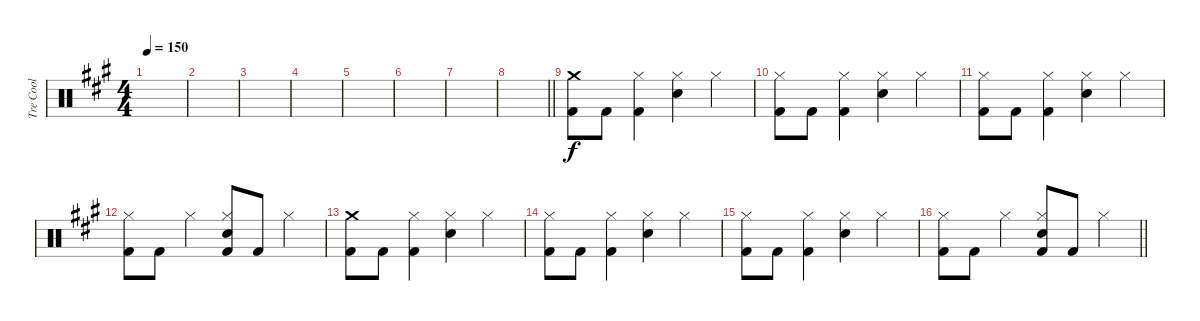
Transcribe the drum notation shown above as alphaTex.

\track ("Tre Cool" "Tre Cool") {instrument percussion}
\staff {score}
\articulation defaults
\ts (4 4)
\tempo 150
\clef neutral
\ks a
|
|
|
|
|
|
|
\barLineRight lightlight
|
("Crash medium (hit)" "Kick (hit) 2").8 "Kick (hit) 2".8 ("Hi-Hat (closed)" "Kick (hit) 2").4 ("Hi-Hat (closed)" "Snare (hit) 2").4 "Hi-Hat (closed)".4 |
("Hi-Hat (closed)" "Kick (hit) 2").8 "Kick (hit) 2".8 ("Hi-Hat (closed)" "Kick (hit) 2").4 ("Hi-Hat (closed)" "Snare (hit) 2").4 "Hi-Hat (closed)".4 |
("Hi-Hat (closed)" "Kick (hit) 2").8 "Kick (hit) 2".8 ("Hi-Hat (closed)" "Kick (hit) 2").4 ("Hi-Hat (closed)" "Snare (hit) 2").4 "Hi-Hat (closed)".4 |
("Hi-Hat (closed)" "Kick (hit) 2").8 "Kick (hit) 2".8 "Hi-Hat (closed)".4 ("Hi-Hat (closed)" "Snare (hit) 2" "Kick (hit) 2").8 "Kick (hit) 2".8 "Hi-Hat (closed)".4 |
("Crash medium (hit)" "Kick (hit) 2").8 "Kick (hit) 2".8 ("Hi-Hat (closed)" "Kick (hit) 2").4 ("Hi-Hat (closed)" "Snare (hit) 2").4 "Hi-Hat (closed)".4 |
("Hi-Hat (closed)" "Kick (hit) 2").8 "Kick (hit) 2".8 ("Hi-Hat (closed)" "Kick (hit) 2").4 ("Hi-Hat (closed)" "Snare (hit) 2").4 "Hi-Hat (closed)".4 |
("Hi-Hat (closed)" "Kick (hit) 2").8 "Kick (hit) 2".8 ("Hi-Hat (closed)" "Kick (hit) 2").4 ("Hi-Hat (closed)" "Snare (hit) 2").4 "Hi-Hat (closed)".4 |
\barLineRight lightlight
("Hi-Hat (closed)" "Kick (hit) 2").8 "Kick (hit) 2".8 "Hi-Hat (closed)".4 ("Hi-Hat (closed)" "Snare (hit) 2" "Kick (hit) 2").8 "Kick (hit) 2".8 "Hi-Hat (closed)".4
